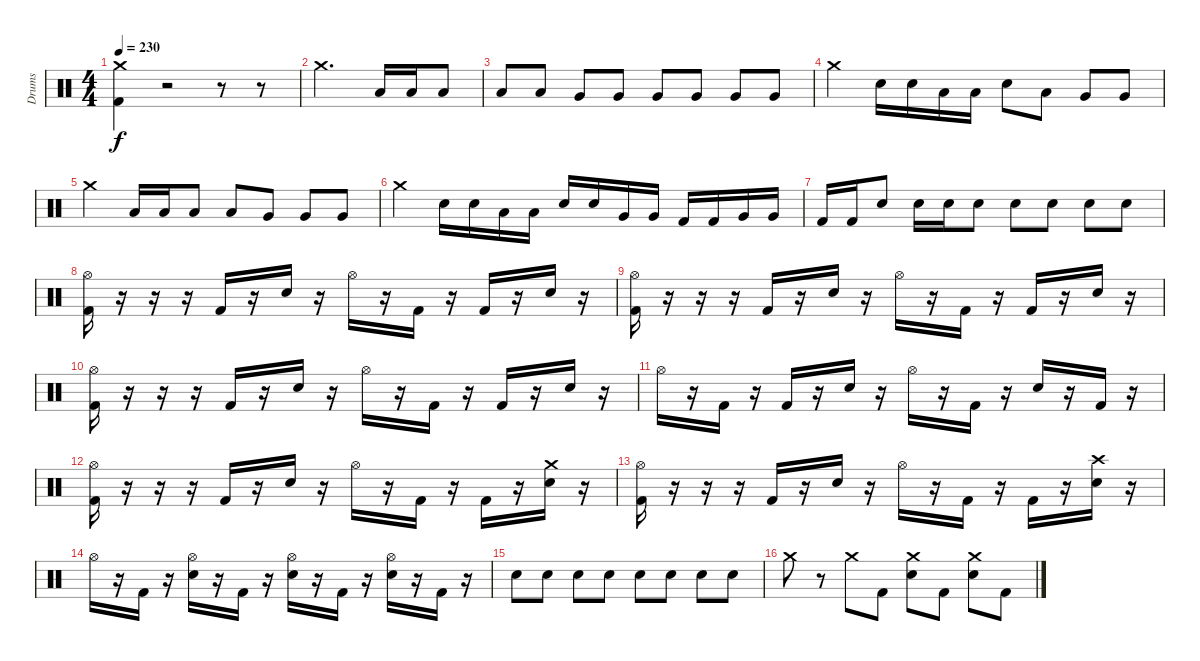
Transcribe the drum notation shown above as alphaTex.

\track ("Drums" "Drums") {instrument percussion}
\staff {score}
\articulation defaults
\ts (4 4)
\tempo 230
\clef neutral
\ks c
("Crash medium (hit)" "Kick (hit) 2").4{dy f} r.2{volume 0} r.8 r.8{volume 16} |
"Crash medium (hit)".2{d volume 16} "Low Tom (hit)".16{balance 1} "Low Tom (hit)".16 "Low Tom (hit)".8 |
"Low Tom (hit)".8{balance 8} "Low Tom (hit)".8 "Very Low Tom (hit)".8 "Very Low Tom (hit)".8 "Very Low Tom (hit)".8 "Very Low Tom (hit)".8 "Very Low Tom (hit)".8 "Very Low Tom (hit)".8 |
"Crash medium (hit)".4 "Snare (hit) 2".16 "Snare (hit) 2".16 "Low Tom (hit)".16 "Low Tom (hit)".16 "Snare (hit) 2".8 "Low Tom (hit)".8 "Very Low Tom (hit)".8 "Very Low Tom (hit)".8 |
"Crash medium (hit)".4 "Low Tom (hit)".16{balance 0} "Low Tom (hit)".16{balance 16} "Low Tom (hit)".8 "Low Tom (hit)".8 "Very Low Tom (hit)".8 "Very Low Tom (hit)".8 "Very Low Tom (hit)".8 |
"Crash medium (hit)".4{balance 8} "Snare (hit) 2".16 "Snare (hit) 2".16 "Low Tom (hit)".16 "Low Tom (hit)".16 "Snare (hit) 2".16 "Snare (hit) 2".16 "Very Low Tom (hit)".16 "Very Low Tom (hit)".16 "Kick (hit) 2".16 "Kick (hit) 2".16 "Very Low Tom (hit)".16 "Very Low Tom (hit)".16 |
"Kick (hit) 2".16 "Kick (hit) 2".16 "Snare (hit) 2".8 "Snare (hit) 2".16 "Snare (hit) 2".16 "Snare (hit) 2".8 "Snare (hit) 2".8 "Snare (hit) 2".8 "Snare (hit) 2".8 "Snare (hit) 2".8 |
("Hi-Hat (open)" "Kick (hit) 2").16 r.16 r.16 r.16 "Kick (hit) 2".16 r.16 "Snare (hit) 2".16 r.16 "Hi-Hat (open)".16 r.16 "Kick (hit) 2".16 r.16 "Kick (hit) 2".16 r.16 "Snare (hit) 2".16 r.16 |
("Hi-Hat (open)" "Kick (hit) 2").16 r.16 r.16 r.16 "Kick (hit) 2".16 r.16 "Snare (hit) 2".16 r.16 "Hi-Hat (open)".16 r.16 "Kick (hit) 2".16 r.16 "Kick (hit) 2".16 r.16 "Snare (hit) 2".16 r.16 |
("Hi-Hat (open)" "Kick (hit) 2").16 r.16 r.16 r.16 "Kick (hit) 2".16 r.16 "Snare (hit) 2".16 r.16 "Hi-Hat (open)".16 r.16 "Kick (hit) 2".16 r.16 "Kick (hit) 2".16 r.16 "Snare (hit) 2".16 r.16 |
"Hi-Hat (open)".16 r.16 "Kick (hit) 2".16 r.16 "Kick (hit) 2".16 r.16 "Snare (hit) 2".16 r.16 "Hi-Hat (open)".16 r.16 "Kick (hit) 2".16 r.16 "Snare (hit) 2".16 r.16 "Kick (hit) 2".16 r.16 |
("Hi-Hat (open)" "Kick (hit) 2").16 r.16 r.16 r.16 "Kick (hit) 2".16 r.16 "Snare (hit) 2".16 r.16 "Hi-Hat (open)".16 r.16 "Kick (hit) 2".16 r.16 "Kick (hit) 2".16 r.16 ("Crash medium (hit)" "Snare (hit) 2").16 r.16 |
("Hi-Hat (open)" "Kick (hit) 2").16 r.16 r.16 r.16 "Kick (hit) 2".16 r.16 "Snare (hit) 2".16 r.16 "Hi-Hat (open)".16 r.16 "Kick (hit) 2".16 r.16 "Kick (hit) 2".16 r.16 ("Crash high (hit)" "Snare (hit) 2").16 r.16 |
"Hi-Hat (open)".16 r.16 "Kick (hit) 2".16 r.16 ("Hi-Hat (open)" "Snare (hit) 2").16 r.16 "Kick (hit) 2".16 r.16 ("Hi-Hat (open)" "Snare (hit) 2").16 r.16 "Kick (hit) 2".16 r.16 ("Hi-Hat (open)" "Snare (hit) 2").16 r.16 "Kick (hit) 2".16 r.16 |
"Snare (hit) 2".8 "Snare (hit) 2".8 "Snare (hit) 2".8 "Snare (hit) 2".8 "Snare (hit) 2".8 "Snare (hit) 2".8 "Snare (hit) 2".8 "Snare (hit) 2".8 |
"Crash medium (hit)".8 r.8 "Crash medium (hit)".8 "Kick (hit) 2".8 ("Crash medium (hit)" "Snare (hit) 2").8 "Kick (hit) 2".8 ("Crash medium (hit)" "Snare (hit) 2").8 "Kick (hit) 2".8
